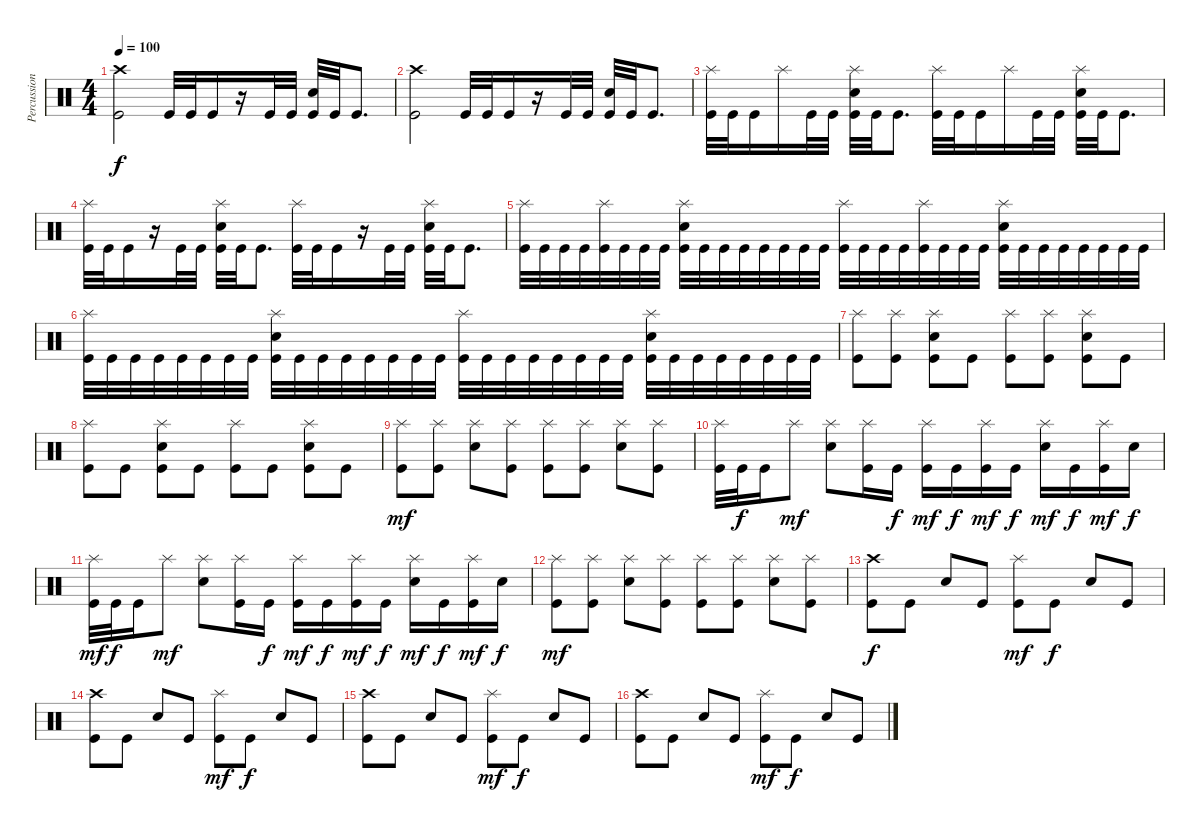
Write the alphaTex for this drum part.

\track ("Percussion" "Percussion") {instrument percussion}
\staff {score}
\articulation defaults
\ts (4 4)
\tempo 100
\clef neutral
\ks c
("Crash high (hit)" "Kick (hit)").2{dy f} "Kick (hit)".32 "Kick (hit)".32 "Kick (hit)".16 r.16 "Kick (hit)".32 "Kick (hit)".32 ("Electric Snare (hit)" "Kick (hit)").32 "Kick (hit)".32 "Kick (hit)".8{d} |
("Crash high (hit)" "Kick (hit)").2 "Kick (hit)".32 "Kick (hit)".32 "Kick (hit)".16 r.16 "Kick (hit)".32 "Kick (hit)".32 ("Electric Snare (hit)" "Kick (hit)").32 "Kick (hit)".32 "Kick (hit)".8{d} |
("Splash (hit)" "Kick (hit)").32 "Kick (hit)".32 "Kick (hit)".16 "Splash (hit)".16 "Kick (hit)".32 "Kick (hit)".32 ("Splash (hit)" "Electric Snare (hit)" "Kick (hit)").32 "Kick (hit)".32 "Kick (hit)".8{d} ("Splash (hit)" "Kick (hit)").32 "Kick (hit)".32 "Kick (hit)".16 "Splash (hit)".16 "Kick (hit)".32 "Kick (hit)".32 ("Splash (hit)" "Electric Snare (hit)" "Kick (hit)").32 "Kick (hit)".32 "Kick (hit)".8{d} |
("Splash (hit)" "Kick (hit)").32 "Kick (hit)".32 "Kick (hit)".16 r.16 "Kick (hit)".32 "Kick (hit)".32 ("Splash (hit)" "Electric Snare (hit)" "Kick (hit)").32 "Kick (hit)".32 "Kick (hit)".8{d} ("Splash (hit)" "Kick (hit)").32 "Kick (hit)".32 "Kick (hit)".16 r.16 "Kick (hit)".32 "Kick (hit)".32 ("Splash (hit)" "Electric Snare (hit)" "Kick (hit)").32 "Kick (hit)".32 "Kick (hit)".8{d} |
("Splash (hit)" "Kick (hit)").32 "Kick (hit)".32 "Kick (hit)".32 "Kick (hit)".32 ("Splash (hit)" "Kick (hit)").32 "Kick (hit)".32 "Kick (hit)".32 "Kick (hit)".32 ("Splash (hit)" "Electric Snare (hit)" "Kick (hit)").32 "Kick (hit)".32 "Kick (hit)".32 "Kick (hit)".32 "Kick (hit)".32 "Kick (hit)".32 "Kick (hit)".32 "Kick (hit)".32 ("Splash (hit)" "Kick (hit)").32 "Kick (hit)".32 "Kick (hit)".32 "Kick (hit)".32 ("Splash (hit)" "Kick (hit)").32 "Kick (hit)".32 "Kick (hit)".32 "Kick (hit)".32 ("Splash (hit)" "Electric Snare (hit)" "Kick (hit)").32 "Kick (hit)".32 "Kick (hit)".32 "Kick (hit)".32 "Kick (hit)".32 "Kick (hit)".32 "Kick (hit)".32 "Kick (hit)".32 |
("Splash (hit)" "Kick (hit)").32 "Kick (hit)".32 "Kick (hit)".32 "Kick (hit)".32 "Kick (hit)".32 "Kick (hit)".32 "Kick (hit)".32 "Kick (hit)".32 ("Splash (hit)" "Electric Snare (hit)" "Kick (hit)").32 "Kick (hit)".32 "Kick (hit)".32 "Kick (hit)".32 "Kick (hit)".32 "Kick (hit)".32 "Kick (hit)".32 "Kick (hit)".32 ("Splash (hit)" "Kick (hit)").32 "Kick (hit)".32 "Kick (hit)".32 "Kick (hit)".32 "Kick (hit)".32 "Kick (hit)".32 "Kick (hit)".32 "Kick (hit)".32 ("Splash (hit)" "Electric Snare (hit)" "Kick (hit)").32 "Kick (hit)".32 "Kick (hit)".32 "Kick (hit)".32 "Kick (hit)".32 "Kick (hit)".32 "Kick (hit)".32 "Kick (hit)".32 |
("Splash (hit)" "Kick (hit)").8 ("Splash (hit)" "Kick (hit)").8 ("Splash (hit)" "Electric Snare (hit)" "Kick (hit)").8 "Kick (hit)".8 ("Splash (hit)" "Kick (hit)").8 ("Splash (hit)" "Kick (hit)").8 ("Splash (hit)" "Electric Snare (hit)" "Kick (hit)").8 "Kick (hit)".8 |
("Splash (hit)" "Kick (hit)").8 "Kick (hit)".8 ("Splash (hit)" "Electric Snare (hit)" "Kick (hit)").8 "Kick (hit)".8 ("Splash (hit)" "Kick (hit)").8 "Kick (hit)".8 ("Splash (hit)" "Electric Snare (hit)" "Kick (hit)").8 "Kick (hit)".8 |
("Splash (hit)" "Kick (hit)").8{dy mf} ("Splash (hit)" "Kick (hit)").8 ("Splash (hit)" "Electric Snare (hit)").8 ("Splash (hit)" "Kick (hit)").8 ("Splash (hit)" "Kick (hit)").8 ("Splash (hit)" "Kick (hit)").8 ("Splash (hit)" "Electric Snare (hit)").8 ("Splash (hit)" "Kick (hit)").8 |
("Splash (hit)" "Kick (hit)").32 "Kick (hit)".32{dy f} "Kick (hit)".16 "Splash (hit)".8{dy mf} ("Splash (hit)" "Electric Snare (hit)").8 ("Splash (hit)" "Kick (hit)").16 "Kick (hit)".16{dy f} ("Splash (hit)" "Kick (hit)").16{dy mf} "Kick (hit)".16{dy f} ("Splash (hit)" "Kick (hit)").16{dy mf} "Kick (hit)".16{dy f} ("Splash (hit)" "Electric Snare (hit)").16{dy mf} "Kick (hit)".16{dy f} ("Splash (hit)" "Kick (hit)").16{dy mf} "Electric Snare (hit)".16{dy f} |
("Splash (hit)" "Kick (hit)").32{dy mf} "Kick (hit)".32{dy f} "Kick (hit)".16 "Splash (hit)".8{dy mf} ("Splash (hit)" "Electric Snare (hit)").8 ("Splash (hit)" "Kick (hit)").16 "Kick (hit)".16{dy f} ("Splash (hit)" "Kick (hit)").16{dy mf} "Kick (hit)".16{dy f} ("Splash (hit)" "Kick (hit)").16{dy mf} "Kick (hit)".16{dy f} ("Splash (hit)" "Electric Snare (hit)").16{dy mf} "Kick (hit)".16{dy f} ("Splash (hit)" "Kick (hit)").16{dy mf} "Electric Snare (hit)".16{dy f} |
("Splash (hit)" "Kick (hit)").8{dy mf} ("Splash (hit)" "Kick (hit)").8 ("Splash (hit)" "Electric Snare (hit)").8 ("Splash (hit)" "Kick (hit)").8 ("Splash (hit)" "Kick (hit)").8 ("Splash (hit)" "Kick (hit)").8 ("Splash (hit)" "Electric Snare (hit)").8 ("Splash (hit)" "Kick (hit)").8 |
("Crash high (hit)" "Kick (hit)").8{dy f} "Kick (hit)".8 "Electric Snare (hit)".8 "Kick (hit)".8 ("Splash (hit)" "Kick (hit)").8{dy mf} "Kick (hit)".8{dy f} "Electric Snare (hit)".8 "Kick (hit)".8 |
("Crash high (hit)" "Kick (hit)").8 "Kick (hit)".8 "Electric Snare (hit)".8 "Kick (hit)".8 ("Splash (hit)" "Kick (hit)").8{dy mf} "Kick (hit)".8{dy f} "Electric Snare (hit)".8 "Kick (hit)".8 |
("Crash high (hit)" "Kick (hit)").8 "Kick (hit)".8 "Electric Snare (hit)".8 "Kick (hit)".8 ("Splash (hit)" "Kick (hit)").8{dy mf} "Kick (hit)".8{dy f} "Electric Snare (hit)".8 "Kick (hit)".8 |
("Crash high (hit)" "Kick (hit)").8 "Kick (hit)".8 "Electric Snare (hit)".8 "Kick (hit)".8 ("Splash (hit)" "Kick (hit)").8{dy mf} "Kick (hit)".8{dy f} "Electric Snare (hit)".8 "Kick (hit)".8
